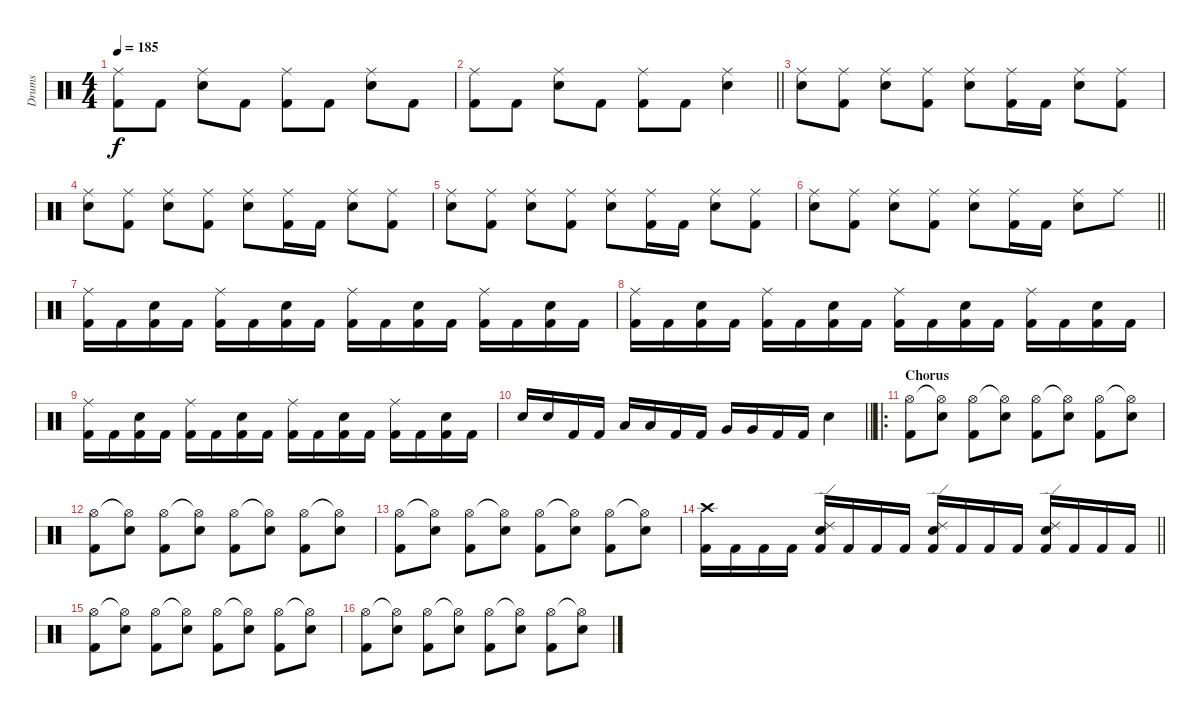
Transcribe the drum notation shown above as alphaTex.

\track ("Drums" "Drums") {instrument percussion}
\staff {score}
\articulation defaults
\ts (4 4)
\tempo 185
\clef neutral
\ks c
("Ride (middle)" "Kick (hit) 2").8{dy f} "Kick (hit) 2".8 ("Ride (middle)" "Electric Snare (hit)").8 "Kick (hit) 2".8 ("Ride (middle)" "Kick (hit) 2").8 "Kick (hit) 2".8 ("Ride (middle)" "Electric Snare (hit)").8 "Kick (hit) 2".8 |
\barLineRight lightlight
("Ride (middle)" "Kick (hit) 2").8 "Kick (hit) 2".8 ("Ride (middle)" "Electric Snare (hit)").8 "Kick (hit) 2".8 ("Ride (middle)" "Kick (hit) 2").8 "Kick (hit) 2".8 ("Ride (middle)" "Electric Snare (hit)").4 |
\section ("" "")
("Ride (middle)" "Electric Snare (hit)").8 ("Ride (middle)" "Kick (hit) 2").8 ("Ride (middle)" "Electric Snare (hit)").8 ("Ride (middle)" "Kick (hit) 2").8 ("Ride (middle)" "Electric Snare (hit)").8 ("Ride (middle)" "Kick (hit) 2").16 "Kick (hit) 2".16 ("Ride (middle)" "Electric Snare (hit)").8 ("Ride (middle)" "Kick (hit) 2").8 |
("Ride (middle)" "Electric Snare (hit)").8 ("Ride (middle)" "Kick (hit) 2").8 ("Ride (middle)" "Electric Snare (hit)").8 ("Ride (middle)" "Kick (hit) 2").8 ("Ride (middle)" "Electric Snare (hit)").8 ("Ride (middle)" "Kick (hit) 2").16 "Kick (hit) 2".16 ("Ride (middle)" "Electric Snare (hit)").8 ("Ride (middle)" "Kick (hit) 2").8 |
("Ride (middle)" "Electric Snare (hit)").8 ("Ride (middle)" "Kick (hit) 2").8 ("Ride (middle)" "Electric Snare (hit)").8 ("Ride (middle)" "Kick (hit) 2").8 ("Ride (middle)" "Electric Snare (hit)").8 ("Ride (middle)" "Kick (hit) 2").16 "Kick (hit) 2".16 ("Ride (middle)" "Electric Snare (hit)").8 ("Ride (middle)" "Kick (hit) 2").8 |
\barLineRight lightlight
("Ride (middle)" "Electric Snare (hit)").8 ("Ride (middle)" "Kick (hit) 2").8 ("Ride (middle)" "Electric Snare (hit)").8 ("Ride (middle)" "Kick (hit) 2").8 ("Ride (middle)" "Electric Snare (hit)").8 ("Ride (middle)" "Kick (hit) 2").16 "Kick (hit) 2".16 ("Ride (middle)" "Electric Snare (hit)").8 "Ride (middle)".8 |
\section ("" "")
("Ride (middle)" "Kick (hit) 2").16 "Kick (hit) 2".16 ("Electric Snare (hit)" "Kick (hit) 2").16 "Kick (hit) 2".16 ("Ride (middle)" "Kick (hit) 2").16 "Kick (hit) 2".16 ("Electric Snare (hit)" "Kick (hit) 2").16 "Kick (hit) 2".16 ("Ride (middle)" "Kick (hit) 2").16 "Kick (hit) 2".16 ("Electric Snare (hit)" "Kick (hit) 2").16 "Kick (hit) 2".16 ("Ride (middle)" "Kick (hit) 2").16 "Kick (hit) 2".16 ("Electric Snare (hit)" "Kick (hit) 2").16 "Kick (hit) 2".16 |
("Ride (middle)" "Kick (hit) 2").16 "Kick (hit) 2".16 ("Electric Snare (hit)" "Kick (hit) 2").16 "Kick (hit) 2".16 ("Ride (middle)" "Kick (hit) 2").16 "Kick (hit) 2".16 ("Electric Snare (hit)" "Kick (hit) 2").16 "Kick (hit) 2".16 ("Ride (middle)" "Kick (hit) 2").16 "Kick (hit) 2".16 ("Electric Snare (hit)" "Kick (hit) 2").16 "Kick (hit) 2".16 ("Ride (middle)" "Kick (hit) 2").16 "Kick (hit) 2".16 ("Electric Snare (hit)" "Kick (hit) 2").16 "Kick (hit) 2".16 |
("Ride (middle)" "Kick (hit) 2").16 "Kick (hit) 2".16 ("Electric Snare (hit)" "Kick (hit) 2").16 "Kick (hit) 2".16 ("Ride (middle)" "Kick (hit) 2").16 "Kick (hit) 2".16 ("Electric Snare (hit)" "Kick (hit) 2").16 "Kick (hit) 2".16 ("Ride (middle)" "Kick (hit) 2").16 "Kick (hit) 2".16 ("Electric Snare (hit)" "Kick (hit) 2").16 "Kick (hit) 2".16 ("Ride (middle)" "Kick (hit) 2").16 "Kick (hit) 2".16 ("Electric Snare (hit)" "Kick (hit) 2").16 "Kick (hit) 2".16 |
\barLineRight lightlight "Electric Snare (hit)".16 "Electric Snare (hit)".16 "Kick (hit) 2".16 "Kick (hit) 2".16 "Low Tom (hit)".16 "Low Tom (hit)".16 "Kick (hit) 2".16 "Kick (hit) 2".16 "Very Low Tom (hit)".16 "Very Low Tom (hit)".16 "Kick (hit) 2".16 "Kick (hit) 2".16 "Electric Snare (hit)".4
|
\ro
\section ("" "Chorus")
("Hi-Hat (open)" "Kick (hit) 2").8 ("Hi-Hat (open)"{t} "Electric Snare (hit)").8 ("Hi-Hat (open)" "Kick (hit) 2").8 ("Hi-Hat (open)"{t} "Electric Snare (hit)").8 ("Hi-Hat (open)" "Kick (hit) 2").8 ("Hi-Hat (open)"{t} "Electric Snare (hit)").8 ("Hi-Hat (open)" "Kick (hit) 2").8 ("Hi-Hat (open)"{t} "Electric Snare (hit)").8 |
("Hi-Hat (open)" "Kick (hit) 2").8 ("Hi-Hat (open)"{t} "Electric Snare (hit)").8 ("Hi-Hat (open)" "Kick (hit) 2").8 ("Hi-Hat (open)"{t} "Electric Snare (hit)").8 ("Hi-Hat (open)" "Kick (hit) 2").8 ("Hi-Hat (open)"{t} "Electric Snare (hit)").8 ("Hi-Hat (open)" "Kick (hit) 2").8 ("Hi-Hat (open)"{t} "Electric Snare (hit)").8 |
("Hi-Hat (open)" "Kick (hit) 2").8 ("Hi-Hat (open)"{t} "Electric Snare (hit)").8 ("Hi-Hat (open)" "Kick (hit) 2").8 ("Hi-Hat (open)"{t} "Electric Snare (hit)").8 ("Hi-Hat (open)" "Kick (hit) 2").8 ("Hi-Hat (open)"{t} "Electric Snare (hit)").8 ("Hi-Hat (open)" "Kick (hit) 2").8 ("Hi-Hat (open)"{t} "Electric Snare (hit)").8 |
\barLineRight lightlight
("Crash high (hit)" "Kick (hit) 2").16 "Kick (hit) 2".16 "Kick (hit) 2".16 "Kick (hit) 2".16 ("Ride (edge) 2" "Electric Snare (hit)" "Kick (hit) 2").16 "Kick (hit) 2".16 "Kick (hit) 2".16 "Kick (hit) 2".16 ("Ride (edge) 2" "Electric Snare (hit)" "Kick (hit) 2").16 "Kick (hit) 2".16 "Kick (hit) 2".16 "Kick (hit) 2".16 ("Ride (edge) 2" "Electric Snare (hit)" "Kick (hit) 2").16 "Kick (hit) 2".16 "Kick (hit) 2".16 "Kick (hit) 2".16 |
("Hi-Hat (open)" "Kick (hit) 2").8 ("Hi-Hat (open)"{t} "Electric Snare (hit)").8 ("Hi-Hat (open)" "Kick (hit) 2").8 ("Hi-Hat (open)"{t} "Electric Snare (hit)").8 ("Hi-Hat (open)" "Kick (hit) 2").8 ("Hi-Hat (open)"{t} "Electric Snare (hit)").8 ("Hi-Hat (open)" "Kick (hit) 2").8 ("Hi-Hat (open)"{t} "Electric Snare (hit)").8 |
("Hi-Hat (open)" "Kick (hit) 2").8 ("Hi-Hat (open)"{t} "Electric Snare (hit)").8 ("Hi-Hat (open)" "Kick (hit) 2").8 ("Hi-Hat (open)"{t} "Electric Snare (hit)").8 ("Hi-Hat (open)" "Kick (hit) 2").8 ("Hi-Hat (open)"{t} "Electric Snare (hit)").8 ("Hi-Hat (open)" "Kick (hit) 2").8 ("Hi-Hat (open)"{t} "Electric Snare (hit)").8
